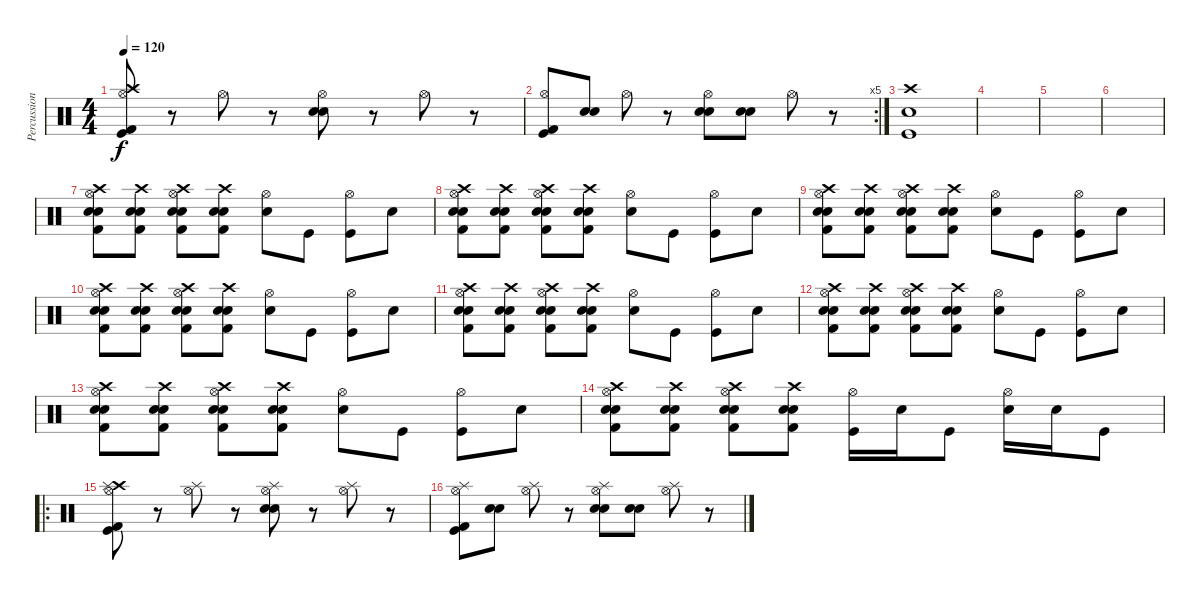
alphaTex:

\track ("Percussion" "Percussion") {instrument percussion}
\staff {score}
\articulation defaults
\ts (4 4)
\tempo 120
\clef neutral
\ks c
("Kick (hit)" "Hi-Hat (open)" "Crash high (hit)" "Kick (hit) 2").8{dy f} r.8 "Hi-Hat (open)".8 r.8 ("Electric Snare (hit)" "Hi-Hat (open)" "Snare (hit) 2").8 r.8 "Hi-Hat (open)".8 r.8 |
\rc 5
("Kick (hit)" "Hi-Hat (open)" "Kick (hit) 2").8 ("Electric Snare (hit)" "Snare (hit) 2").8 "Hi-Hat (open)".8 r.8 ("Electric Snare (hit)" "Hi-Hat (open)" "Snare (hit) 2").8 ("Electric Snare (hit)" "Snare (hit) 2").8 "Hi-Hat (open)".8 r.8 |
("Electric Snare (hit)" "Crash high (hit)" "Kick (hit)").1 |
|
|
|
("Snare (hit) 2" "Kick (hit) 2" "Crash high (hit)" "Electric Snare (hit)" "Hi-Hat (open)").8 ("Snare (hit) 2" "Kick (hit) 2" "Crash high (hit)" "Electric Snare (hit)").8 ("Snare (hit) 2" "Kick (hit) 2" "Crash high (hit)" "Electric Snare (hit)" "Hi-Hat (open)").8 ("Snare (hit) 2" "Kick (hit) 2" "Crash high (hit)" "Electric Snare (hit)").8 ("Electric Snare (hit)" "Hi-Hat (open)").8 "Kick (hit)".8 ("Kick (hit)" "Hi-Hat (open)").8 "Electric Snare (hit)".8 |
("Snare (hit) 2" "Kick (hit) 2" "Crash high (hit)" "Electric Snare (hit)" "Hi-Hat (open)").8 ("Snare (hit) 2" "Kick (hit) 2" "Crash high (hit)" "Electric Snare (hit)").8 ("Snare (hit) 2" "Kick (hit) 2" "Crash high (hit)" "Electric Snare (hit)" "Hi-Hat (open)").8 ("Snare (hit) 2" "Kick (hit) 2" "Crash high (hit)" "Electric Snare (hit)").8 ("Electric Snare (hit)" "Hi-Hat (open)").8 "Kick (hit)".8 ("Kick (hit)" "Hi-Hat (open)").8 "Electric Snare (hit)".8 |
("Snare (hit) 2" "Kick (hit) 2" "Crash high (hit)" "Electric Snare (hit)" "Hi-Hat (open)").8 ("Snare (hit) 2" "Kick (hit) 2" "Crash high (hit)" "Electric Snare (hit)").8 ("Snare (hit) 2" "Kick (hit) 2" "Crash high (hit)" "Electric Snare (hit)" "Hi-Hat (open)").8 ("Snare (hit) 2" "Kick (hit) 2" "Crash high (hit)" "Electric Snare (hit)").8 ("Electric Snare (hit)" "Hi-Hat (open)").8 "Kick (hit)".8 ("Kick (hit)" "Hi-Hat (open)").8 "Electric Snare (hit)".8 |
("Snare (hit) 2" "Kick (hit) 2" "Crash high (hit)" "Electric Snare (hit)" "Hi-Hat (open)").8 ("Snare (hit) 2" "Kick (hit) 2" "Crash high (hit)" "Electric Snare (hit)").8 ("Snare (hit) 2" "Kick (hit) 2" "Crash high (hit)" "Electric Snare (hit)" "Hi-Hat (open)").8 ("Snare (hit) 2" "Kick (hit) 2" "Crash high (hit)" "Electric Snare (hit)").8 ("Electric Snare (hit)" "Hi-Hat (open)").8 "Kick (hit)".8 ("Kick (hit)" "Hi-Hat (open)").8 "Electric Snare (hit)".8 |
("Snare (hit) 2" "Kick (hit) 2" "Crash high (hit)" "Electric Snare (hit)" "Hi-Hat (open)").8 ("Snare (hit) 2" "Kick (hit) 2" "Crash high (hit)" "Electric Snare (hit)").8 ("Snare (hit) 2" "Kick (hit) 2" "Crash high (hit)" "Electric Snare (hit)" "Hi-Hat (open)").8 ("Snare (hit) 2" "Kick (hit) 2" "Crash high (hit)" "Electric Snare (hit)").8 ("Electric Snare (hit)" "Hi-Hat (open)").8 "Kick (hit)".8 ("Kick (hit)" "Hi-Hat (open)").8 "Electric Snare (hit)".8 |
("Snare (hit) 2" "Kick (hit) 2" "Crash high (hit)" "Electric Snare (hit)" "Hi-Hat (open)").8 ("Snare (hit) 2" "Kick (hit) 2" "Crash high (hit)" "Electric Snare (hit)").8 ("Snare (hit) 2" "Kick (hit) 2" "Crash high (hit)" "Electric Snare (hit)" "Hi-Hat (open)").8 ("Snare (hit) 2" "Kick (hit) 2" "Crash high (hit)" "Electric Snare (hit)").8 ("Electric Snare (hit)" "Hi-Hat (open)").8 "Kick (hit)".8 ("Kick (hit)" "Hi-Hat (open)").8 "Electric Snare (hit)".8 |
("Snare (hit) 2" "Kick (hit) 2" "Crash high (hit)" "Electric Snare (hit)" "Hi-Hat (open)").8 ("Snare (hit) 2" "Kick (hit) 2" "Crash high (hit)" "Electric Snare (hit)").8 ("Snare (hit) 2" "Kick (hit) 2" "Crash high (hit)" "Electric Snare (hit)" "Hi-Hat (open)").8 ("Snare (hit) 2" "Kick (hit) 2" "Crash high (hit)" "Electric Snare (hit)").8 ("Electric Snare (hit)" "Hi-Hat (open)").8 "Kick (hit)".8 ("Kick (hit)" "Hi-Hat (open)").8 "Electric Snare (hit)".8 |
("Snare (hit) 2" "Kick (hit) 2" "Crash high (hit)" "Electric Snare (hit)" "Hi-Hat (open)").8 ("Snare (hit) 2" "Kick (hit) 2" "Crash high (hit)" "Electric Snare (hit)").8 ("Snare (hit) 2" "Kick (hit) 2" "Crash high (hit)" "Electric Snare (hit)" "Hi-Hat (open)").8 ("Snare (hit) 2" "Kick (hit) 2" "Crash high (hit)" "Electric Snare (hit)").8 ("Kick (hit)" "Hi-Hat (open)").16 "Electric Snare (hit)".16 "Kick (hit)".8 ("Electric Snare (hit)" "Hi-Hat (open)").16 "Electric Snare (hit)".16 "Kick (hit)".8 |
\ro
("Kick (hit)" "Hi-Hat (open)" "Crash high (hit)" "Kick (hit) 2" "Splash (hit)").8 r.8 ("Hi-Hat (open)" "Splash (hit)").8 r.8 ("Electric Snare (hit)" "Hi-Hat (open)" "Snare (hit) 2" "Splash (hit)").8 r.8 ("Hi-Hat (open)" "Splash (hit)").8 r.8 |
("Kick (hit)" "Hi-Hat (open)" "Kick (hit) 2" "Splash (hit)").8 ("Electric Snare (hit)" "Snare (hit) 2").8 ("Hi-Hat (open)" "Splash (hit)").8 r.8 ("Electric Snare (hit)" "Hi-Hat (open)" "Snare (hit) 2" "Splash (hit)").8 ("Electric Snare (hit)" "Snare (hit) 2").8 ("Hi-Hat (open)" "Splash (hit)").8 r.8
